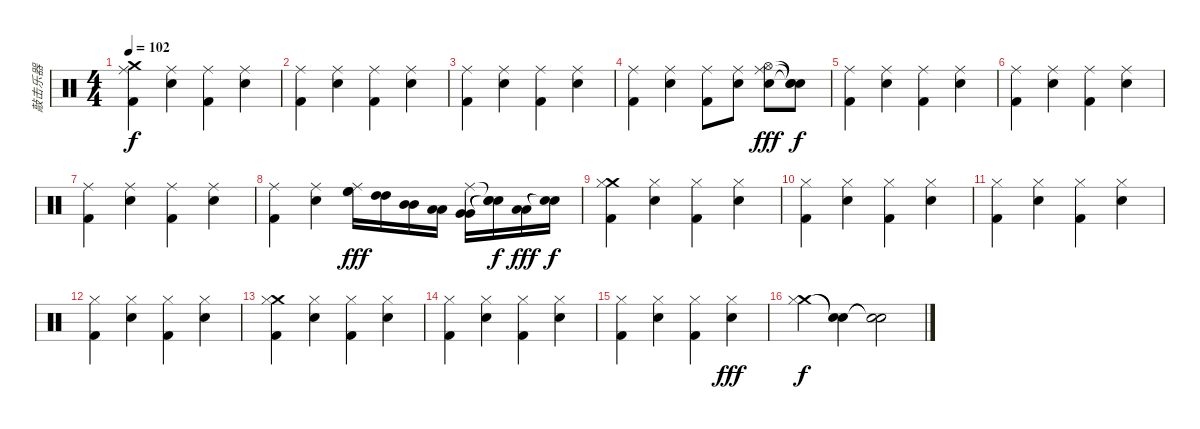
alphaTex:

\track ("敲击乐器" "敲击乐器") {instrument percussion}
\staff {score}
\articulation defaults
\ts (4 4)
\tempo 102
\clef neutral
\ks c
("Ride (middle)" "Kick (hit) 2" "Crash medium (hit)").4{dy f} ("Ride (middle)" "Electric Snare (hit)").4 ("Ride (middle)" "Kick (hit) 2").4 ("Ride (middle)" "Electric Snare (hit)").4 |
("Ride (middle)" "Kick (hit) 2").4 ("Ride (middle)" "Electric Snare (hit)").4 ("Ride (middle)" "Kick (hit) 2").4 ("Ride (middle)" "Electric Snare (hit)").4 |
("Ride (middle)" "Kick (hit) 2").4 ("Ride (middle)" "Electric Snare (hit)").4 ("Ride (middle)" "Kick (hit) 2").4 ("Ride (middle)" "Electric Snare (hit)").4 |
("Ride (middle)" "Kick (hit) 2").4 ("Ride (middle)" "Electric Snare (hit)").4 ("Ride (middle)" "Kick (hit) 2").8 ("Ride (middle)" "Electric Snare (hit)").8 ("Ride (middle)" "Electric Snare (hit)" "Hi-Hat (open)").8{dy fff} ("Snare (hit)"{t} "Snare (hit)"{t} "Snare (hit)"{t}).8{dy f} |
("Ride (middle)" "Kick (hit) 2").4 ("Ride (middle)" "Electric Snare (hit)").4 ("Ride (middle)" "Kick (hit) 2").4 ("Ride (middle)" "Electric Snare (hit)").4 |
("Ride (middle)" "Kick (hit) 2").4 ("Ride (middle)" "Electric Snare (hit)").4 ("Ride (middle)" "Kick (hit) 2").4 ("Ride (middle)" "Electric Snare (hit)").4 |
("Ride (middle)" "Kick (hit) 2").4 ("Ride (middle)" "Electric Snare (hit)").4 ("Ride (middle)" "Kick (hit) 2").4 ("Ride (middle)" "Electric Snare (hit)").4 |
("Ride (middle)" "Kick (hit) 2").4 ("Ride (middle)" "Electric Snare (hit)").4 ("Ride (middle)" "High Floor Tom (hit)" "High Floor Tom (hit)").16{dy fff} ("High Tom (hit)" "High Tom (hit)").16 ("Mid Tom (hit)" "Mid Tom (hit)").16 ("Low Tom (hit)" "Low Tom (hit)").16 ("Ride (middle)" "Very Low Tom (hit)" "Very Low Tom (hit)").16 ("Snare (hit)"{t} "Snare (hit)"{t} "Snare (hit)"{t}).16{dy f} ("Low Floor Tom (hit)" "Low Floor Tom (hit)").16{dy fff} ("Snare (hit)"{t} "Snare (hit)"{t}).16{dy f} |
("Crash medium (hit)" "Hi-Hat (closed)" "Kick (hit) 2").4 ("Hi-Hat (closed)" "Snare (hit) 2").4 ("Hi-Hat (closed)" "Kick (hit) 2").4 ("Hi-Hat (closed)" "Snare (hit) 2").4 |
("Hi-Hat (closed)" "Kick (hit) 2").4 ("Hi-Hat (closed)" "Snare (hit) 2").4 ("Hi-Hat (closed)" "Kick (hit) 2").4 ("Hi-Hat (closed)" "Snare (hit) 2").4 |
("Hi-Hat (closed)" "Kick (hit) 2").4 ("Hi-Hat (closed)" "Snare (hit) 2").4 ("Hi-Hat (closed)" "Kick (hit) 2").4 ("Hi-Hat (closed)" "Snare (hit) 2").4 |
("Hi-Hat (closed)" "Kick (hit) 2").4 ("Hi-Hat (closed)" "Snare (hit) 2").4 ("Hi-Hat (closed)" "Kick (hit) 2").4 ("Hi-Hat (closed)" "Snare (hit) 2").4 |
("Crash medium (hit)" "Hi-Hat (closed)" "Kick (hit) 2").4 ("Hi-Hat (closed)" "Snare (hit) 2").4 ("Hi-Hat (closed)" "Kick (hit) 2").4 ("Hi-Hat (closed)" "Snare (hit) 2").4 |
("Hi-Hat (closed)" "Kick (hit) 2").4 ("Hi-Hat (closed)" "Snare (hit) 2").4 ("Hi-Hat (closed)" "Kick (hit) 2").4 ("Hi-Hat (closed)" "Snare (hit) 2").4 |
("Hi-Hat (closed)" "Kick (hit) 2").4 ("Hi-Hat (closed)" "Snare (hit) 2").4 ("Hi-Hat (closed)" "Kick (hit) 2").4 ("Hi-Hat (closed)" "Snare (hit) 2").4{dy fff} |
("Crash medium (hit)" "Hi-Hat (closed)").4{dy f} ("Snare (hit)"{t} "Snare (hit)"{t}).4 ("Snare (hit)"{t} "Snare (hit)"{t}).2
